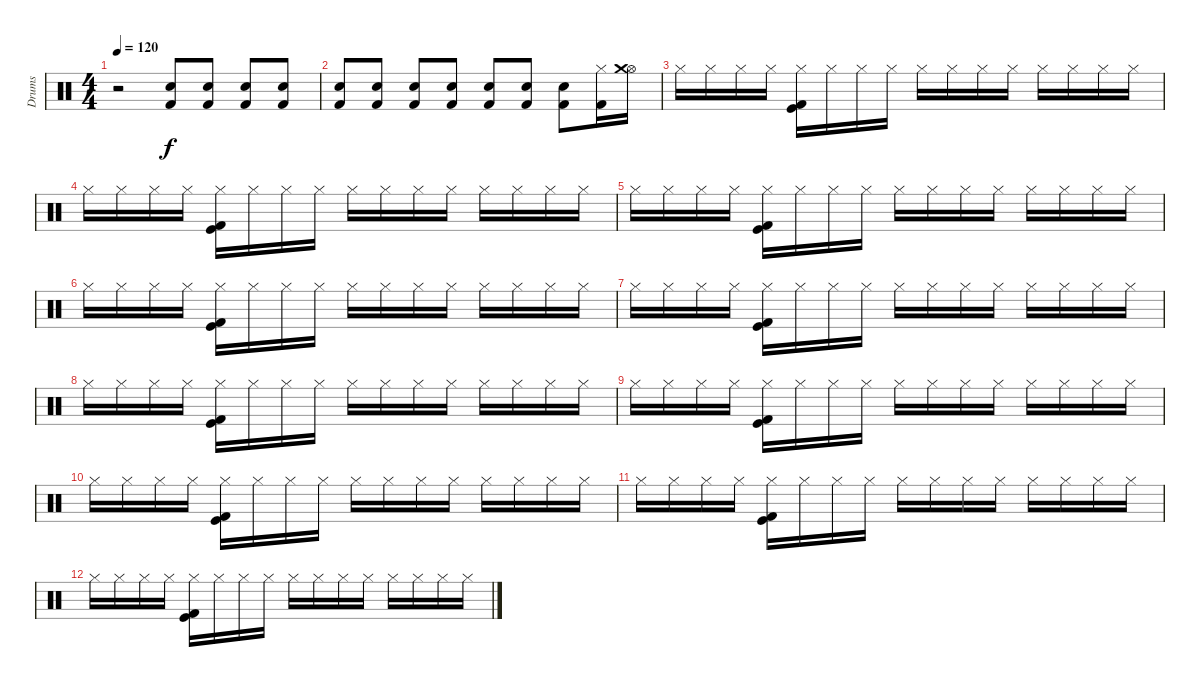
\track ("Drums" "Drums") {instrument percussion}
\staff {score}
\articulation defaults
\ts (4 4)
\tempo 120
\clef neutral
\ks c
r.2{dy f} ("Kick (hit) 2" "Snare (hit) 2").8{volume 4} ("Snare (hit) 2" "Kick (hit) 2").8 ("Kick (hit) 2" "Snare (hit) 2").8{volume 7} ("Snare (hit) 2" "Kick (hit) 2").8 |
("Snare (hit) 2" "Kick (hit) 2").8{volume 10} ("Snare (hit) 2" "Kick (hit) 2").8 ("Snare (hit) 2" "Kick (hit) 2").8 ("Snare (hit) 2" "Kick (hit) 2").8{volume 12} ("Snare (hit) 2" "Kick (hit) 2").8 ("Snare (hit) 2" "Kick (hit) 2").8 ("Snare (hit) 2" "Kick (hit) 2").8{volume 16} ("Hi-Hat (closed)" "Kick (hit) 2").16 ("Hi-Hat (open)" "Crash medium (hit)").16 |
"Hi-Hat (closed)".16 "Hi-Hat (closed)".16 "Hi-Hat (closed)".16 "Hi-Hat (closed)".16 ("Hi-Hat (closed)" "Kick (hit)" "Kick (hit) 2").16 "Hi-Hat (closed)".16 "Hi-Hat (closed)".16 "Hi-Hat (closed)".16 "Hi-Hat (closed)".16 "Hi-Hat (closed)".16 "Hi-Hat (closed)".16 "Hi-Hat (closed)".16 "Hi-Hat (closed)".16 "Hi-Hat (closed)".16 "Hi-Hat (closed)".16 "Hi-Hat (closed)".16 |
"Hi-Hat (closed)".16 "Hi-Hat (closed)".16 "Hi-Hat (closed)".16 "Hi-Hat (closed)".16 ("Hi-Hat (closed)" "Kick (hit)" "Kick (hit) 2").16 "Hi-Hat (closed)".16 "Hi-Hat (closed)".16 "Hi-Hat (closed)".16 "Hi-Hat (closed)".16 "Hi-Hat (closed)".16 "Hi-Hat (closed)".16 "Hi-Hat (closed)".16 "Hi-Hat (closed)".16 "Hi-Hat (closed)".16 "Hi-Hat (closed)".16 "Hi-Hat (closed)".16 |
"Hi-Hat (closed)".16 "Hi-Hat (closed)".16 "Hi-Hat (closed)".16 "Hi-Hat (closed)".16 ("Hi-Hat (closed)" "Kick (hit)" "Kick (hit) 2").16 "Hi-Hat (closed)".16 "Hi-Hat (closed)".16 "Hi-Hat (closed)".16 "Hi-Hat (closed)".16 "Hi-Hat (closed)".16 "Hi-Hat (closed)".16 "Hi-Hat (closed)".16 "Hi-Hat (closed)".16 "Hi-Hat (closed)".16 "Hi-Hat (closed)".16 "Hi-Hat (closed)".16 |
"Hi-Hat (closed)".16 "Hi-Hat (closed)".16 "Hi-Hat (closed)".16 "Hi-Hat (closed)".16 ("Hi-Hat (closed)" "Kick (hit)" "Kick (hit) 2").16 "Hi-Hat (closed)".16 "Hi-Hat (closed)".16 "Hi-Hat (closed)".16 "Hi-Hat (closed)".16 "Hi-Hat (closed)".16 "Hi-Hat (closed)".16 "Hi-Hat (closed)".16 "Hi-Hat (closed)".16 "Hi-Hat (closed)".16 "Hi-Hat (closed)".16 "Hi-Hat (closed)".16 |
"Hi-Hat (closed)".16 "Hi-Hat (closed)".16 "Hi-Hat (closed)".16 "Hi-Hat (closed)".16 ("Hi-Hat (closed)" "Kick (hit)" "Kick (hit) 2").16 "Hi-Hat (closed)".16 "Hi-Hat (closed)".16 "Hi-Hat (closed)".16 "Hi-Hat (closed)".16 "Hi-Hat (closed)".16 "Hi-Hat (closed)".16 "Hi-Hat (closed)".16 "Hi-Hat (closed)".16 "Hi-Hat (closed)".16 "Hi-Hat (closed)".16 "Hi-Hat (closed)".16 |
"Hi-Hat (closed)".16 "Hi-Hat (closed)".16 "Hi-Hat (closed)".16 "Hi-Hat (closed)".16 ("Hi-Hat (closed)" "Kick (hit)" "Kick (hit) 2").16 "Hi-Hat (closed)".16 "Hi-Hat (closed)".16 "Hi-Hat (closed)".16 "Hi-Hat (closed)".16 "Hi-Hat (closed)".16 "Hi-Hat (closed)".16 "Hi-Hat (closed)".16 "Hi-Hat (closed)".16 "Hi-Hat (closed)".16 "Hi-Hat (closed)".16 "Hi-Hat (closed)".16 |
"Hi-Hat (closed)".16 "Hi-Hat (closed)".16 "Hi-Hat (closed)".16 "Hi-Hat (closed)".16 ("Hi-Hat (closed)" "Kick (hit)" "Kick (hit) 2").16 "Hi-Hat (closed)".16 "Hi-Hat (closed)".16 "Hi-Hat (closed)".16 "Hi-Hat (closed)".16 "Hi-Hat (closed)".16 "Hi-Hat (closed)".16 "Hi-Hat (closed)".16 "Hi-Hat (closed)".16 "Hi-Hat (closed)".16 "Hi-Hat (closed)".16 "Hi-Hat (closed)".16 |
"Hi-Hat (closed)".16 "Hi-Hat (closed)".16 "Hi-Hat (closed)".16 "Hi-Hat (closed)".16 ("Hi-Hat (closed)" "Kick (hit)" "Kick (hit) 2").16 "Hi-Hat (closed)".16 "Hi-Hat (closed)".16 "Hi-Hat (closed)".16 "Hi-Hat (closed)".16 "Hi-Hat (closed)".16 "Hi-Hat (closed)".16 "Hi-Hat (closed)".16 "Hi-Hat (closed)".16 "Hi-Hat (closed)".16 "Hi-Hat (closed)".16 "Hi-Hat (closed)".16 |
"Hi-Hat (closed)".16 "Hi-Hat (closed)".16 "Hi-Hat (closed)".16 "Hi-Hat (closed)".16 ("Hi-Hat (closed)" "Kick (hit)" "Kick (hit) 2").16 "Hi-Hat (closed)".16 "Hi-Hat (closed)".16 "Hi-Hat (closed)".16 "Hi-Hat (closed)".16 "Hi-Hat (closed)".16 "Hi-Hat (closed)".16 "Hi-Hat (closed)".16 "Hi-Hat (closed)".16 "Hi-Hat (closed)".16 "Hi-Hat (closed)".16 "Hi-Hat (closed)".16 |
"Hi-Hat (closed)".16 "Hi-Hat (closed)".16 "Hi-Hat (closed)".16 "Hi-Hat (closed)".16 ("Hi-Hat (closed)" "Kick (hit)" "Kick (hit) 2").16 "Hi-Hat (closed)".16 "Hi-Hat (closed)".16 "Hi-Hat (closed)".16 "Hi-Hat (closed)".16 "Hi-Hat (closed)".16 "Hi-Hat (closed)".16 "Hi-Hat (closed)".16 "Hi-Hat (closed)".16 "Hi-Hat (closed)".16 "Hi-Hat (closed)".16 "Hi-Hat (closed)".16
